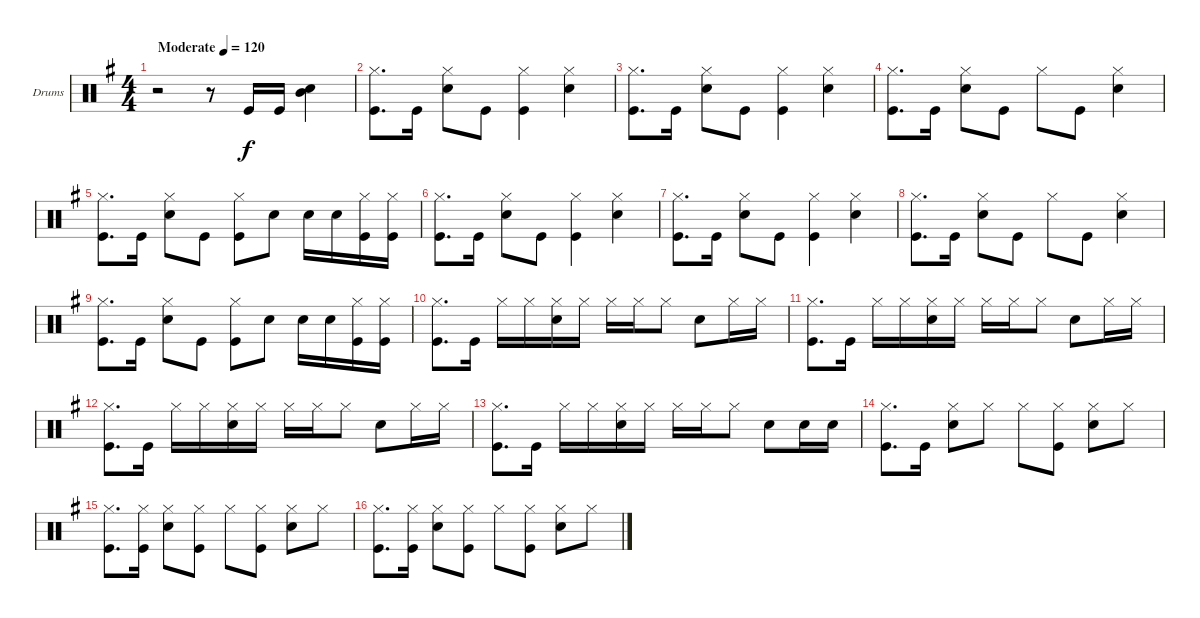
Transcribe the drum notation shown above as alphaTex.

\bracketExtendMode groupsimilarinstruments
\firstSystemTrackNameOrientation horizontal
\otherSystemsTrackNameOrientation horizontal
\track ("Drumkit" "Drums") {instrument percussion}
\staff {score}
\articulation defaults
\ts (4 4)
\beaming (8 2 2 2 2)
\tempo (120 "Moderate")
\clef neutral
\ks eminor
r.2{dy f} r.8 "Kick (hit)".16 "Kick (hit)".16 ("Snare (hit) 2" "Mid Tom (hit)").4 |
("Hi-Hat (closed)" "Kick (hit)").8{d} "Kick (hit)".16 ("Hi-Hat (closed)" "Snare (hit) 2").8 "Kick (hit)".8 ("Hi-Hat (closed)" "Kick (hit)").4 ("Hi-Hat (closed)" "Snare (hit) 2").4 |
("Hi-Hat (closed)" "Kick (hit)").8{d} "Kick (hit)".16 ("Hi-Hat (closed)" "Snare (hit) 2").8 "Kick (hit)".8 ("Hi-Hat (closed)" "Kick (hit)").4 ("Hi-Hat (closed)" "Snare (hit) 2").4 |
("Hi-Hat (closed)" "Kick (hit)").8{d} "Kick (hit)".16 ("Hi-Hat (closed)" "Snare (hit) 2").8 "Kick (hit)".8 "Hi-Hat (closed)".8 "Kick (hit)".8 ("Hi-Hat (closed)" "Snare (hit) 2").4 |
("Hi-Hat (closed)" "Kick (hit)").8{d} "Kick (hit)".16 ("Hi-Hat (closed)" "Snare (hit) 2").8 "Kick (hit)".8 ("Hi-Hat (closed)" "Kick (hit)").8 "Snare (hit) 2".8 "Snare (hit) 2".16 "Snare (hit) 2".16 ("Hi-Hat (closed)" "Kick (hit)").16 ("Hi-Hat (closed)" "Kick (hit)").16 |
("Hi-Hat (closed)" "Kick (hit)").8{d} "Kick (hit)".16 ("Hi-Hat (closed)" "Snare (hit) 2").8 "Kick (hit)".8 ("Hi-Hat (closed)" "Kick (hit)").4 ("Hi-Hat (closed)" "Snare (hit) 2").4 |
("Hi-Hat (closed)" "Kick (hit)").8{d} "Kick (hit)".16 ("Hi-Hat (closed)" "Snare (hit) 2").8 "Kick (hit)".8 ("Hi-Hat (closed)" "Kick (hit)").4 ("Hi-Hat (closed)" "Snare (hit) 2").4 |
("Hi-Hat (closed)" "Kick (hit)").8{d} "Kick (hit)".16 ("Hi-Hat (closed)" "Snare (hit) 2").8 "Kick (hit)".8 "Hi-Hat (closed)".8 "Kick (hit)".8 ("Hi-Hat (closed)" "Snare (hit) 2").4 |
("Hi-Hat (closed)" "Kick (hit)").8{d} "Kick (hit)".16 ("Hi-Hat (closed)" "Snare (hit) 2").8 "Kick (hit)".8 ("Hi-Hat (closed)" "Kick (hit)").8 "Snare (hit) 2".8 "Snare (hit) 2".16 "Snare (hit) 2".16 ("Hi-Hat (closed)" "Kick (hit)").16 ("Hi-Hat (closed)" "Kick (hit)").16 |
("Hi-Hat (closed)" "Kick (hit)").8{d} "Kick (hit)".16 "Hi-Hat (closed)".16 "Hi-Hat (closed)".16 ("Hi-Hat (closed)" "Snare (hit) 2").16 "Hi-Hat (closed)".16 "Hi-Hat (closed)".16 "Hi-Hat (closed)".16 "Hi-Hat (closed)".8 "Snare (hit) 2".8 "Hi-Hat (closed)".16 "Hi-Hat (closed)".16 |
("Hi-Hat (closed)" "Kick (hit)").8{d} "Kick (hit)".16 "Hi-Hat (closed)".16 "Hi-Hat (closed)".16 ("Hi-Hat (closed)" "Snare (hit) 2").16 "Hi-Hat (closed)".16 "Hi-Hat (closed)".16 "Hi-Hat (closed)".16 "Hi-Hat (closed)".8 "Snare (hit) 2".8 "Hi-Hat (closed)".16 "Hi-Hat (closed)".16 |
("Hi-Hat (closed)" "Kick (hit)").8{d} "Kick (hit)".16 "Hi-Hat (closed)".16 "Hi-Hat (closed)".16 ("Hi-Hat (closed)" "Snare (hit) 2").16 "Hi-Hat (closed)".16 "Hi-Hat (closed)".16 "Hi-Hat (closed)".16 "Hi-Hat (closed)".8 "Snare (hit) 2".8 "Hi-Hat (closed)".16 "Hi-Hat (closed)".16 |
("Hi-Hat (closed)" "Kick (hit)").8{d} "Kick (hit)".16 "Hi-Hat (closed)".16 "Hi-Hat (closed)".16 ("Hi-Hat (closed)" "Snare (hit) 2").16 "Hi-Hat (closed)".16 "Hi-Hat (closed)".16 "Hi-Hat (closed)".16 "Hi-Hat (closed)".8 "Snare (hit) 2".8 "Snare (hit) 2".16 "Snare (hit) 2".16 |
("Hi-Hat (closed)" "Kick (hit)").8{d} "Kick (hit)".16 ("Hi-Hat (closed)" "Snare (hit) 2").8 "Hi-Hat (closed)".8 "Hi-Hat (closed)".8 ("Hi-Hat (closed)" "Kick (hit)").8 ("Hi-Hat (closed)" "Snare (hit) 2").8 "Hi-Hat (closed)".8 |
("Hi-Hat (closed)" "Kick (hit)").8{d} ("Hi-Hat (closed)" "Kick (hit)").16 ("Hi-Hat (closed)" "Snare (hit) 2").8 ("Hi-Hat (closed)" "Kick (hit)").8 "Hi-Hat (closed)".8 ("Hi-Hat (closed)" "Kick (hit)").8 ("Hi-Hat (closed)" "Snare (hit) 2").8 "Hi-Hat (closed)".8 |
("Hi-Hat (closed)" "Kick (hit)").8{d} ("Hi-Hat (closed)" "Kick (hit)").16 ("Hi-Hat (closed)" "Snare (hit) 2").8 ("Hi-Hat (closed)" "Kick (hit)").8 "Hi-Hat (closed)".8 ("Hi-Hat (closed)" "Kick (hit)").8 ("Hi-Hat (closed)" "Snare (hit) 2").8 "Hi-Hat (closed)".8
